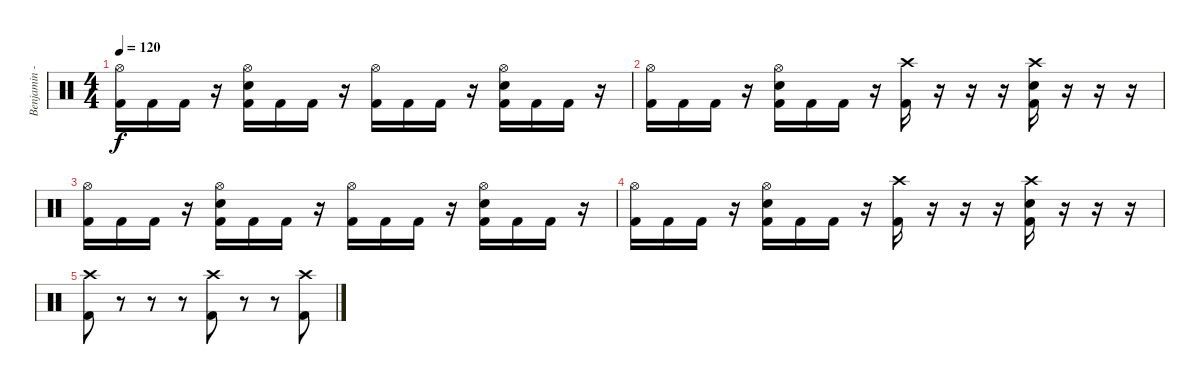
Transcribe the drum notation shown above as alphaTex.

\track ("Benjamin - Drums" "Benjamin -") {instrument percussion}
\staff {score}
\articulation defaults
\ts (4 4)
\tempo 120
\clef neutral
\ks c
("Hi-Hat (open)" "Kick (hit) 2").16{dy f} "Kick (hit) 2".16 "Kick (hit) 2".16 r.16 ("Hi-Hat (open)" "Snare (hit) 2" "Kick (hit) 2").16 "Kick (hit) 2".16 "Kick (hit) 2".16 r.16 ("Hi-Hat (open)" "Kick (hit) 2").16 "Kick (hit) 2".16 "Kick (hit) 2".16 r.16 ("Hi-Hat (open)" "Snare (hit) 2" "Kick (hit) 2").16 "Kick (hit) 2".16 "Kick (hit) 2".16 r.16 |
("Hi-Hat (open)" "Kick (hit) 2").16 "Kick (hit) 2".16 "Kick (hit) 2".16 r.16 ("Hi-Hat (open)" "Snare (hit) 2" "Kick (hit) 2").16 "Kick (hit) 2".16 "Kick (hit) 2".16 r.16 ("Crash high (hit)" "Kick (hit) 2").16 r.16 r.16 r.16 ("Crash high (hit)" "Snare (hit) 2" "Kick (hit) 2").16 r.16 r.16 r.16 |
("Hi-Hat (open)" "Kick (hit) 2").16 "Kick (hit) 2".16 "Kick (hit) 2".16 r.16 ("Hi-Hat (open)" "Snare (hit) 2" "Kick (hit) 2").16 "Kick (hit) 2".16 "Kick (hit) 2".16 r.16 ("Hi-Hat (open)" "Kick (hit) 2").16 "Kick (hit) 2".16 "Kick (hit) 2".16 r.16 ("Hi-Hat (open)" "Snare (hit) 2" "Kick (hit) 2").16 "Kick (hit) 2".16 "Kick (hit) 2".16 r.16 |
("Hi-Hat (open)" "Kick (hit) 2").16 "Kick (hit) 2".16 "Kick (hit) 2".16 r.16 ("Hi-Hat (open)" "Snare (hit) 2" "Kick (hit) 2").16 "Kick (hit) 2".16 "Kick (hit) 2".16 r.16 ("Crash high (hit)" "Kick (hit) 2").16 r.16 r.16 r.16 ("Crash high (hit)" "Snare (hit) 2" "Kick (hit) 2").16 r.16 r.16 r.16 |
("Crash high (hit)" "Kick (hit) 2").8 r.8 r.8 r.8 ("Crash high (hit)" "Kick (hit) 2").8 r.8 r.8 ("Crash high (hit)" "Kick (hit) 2").8
